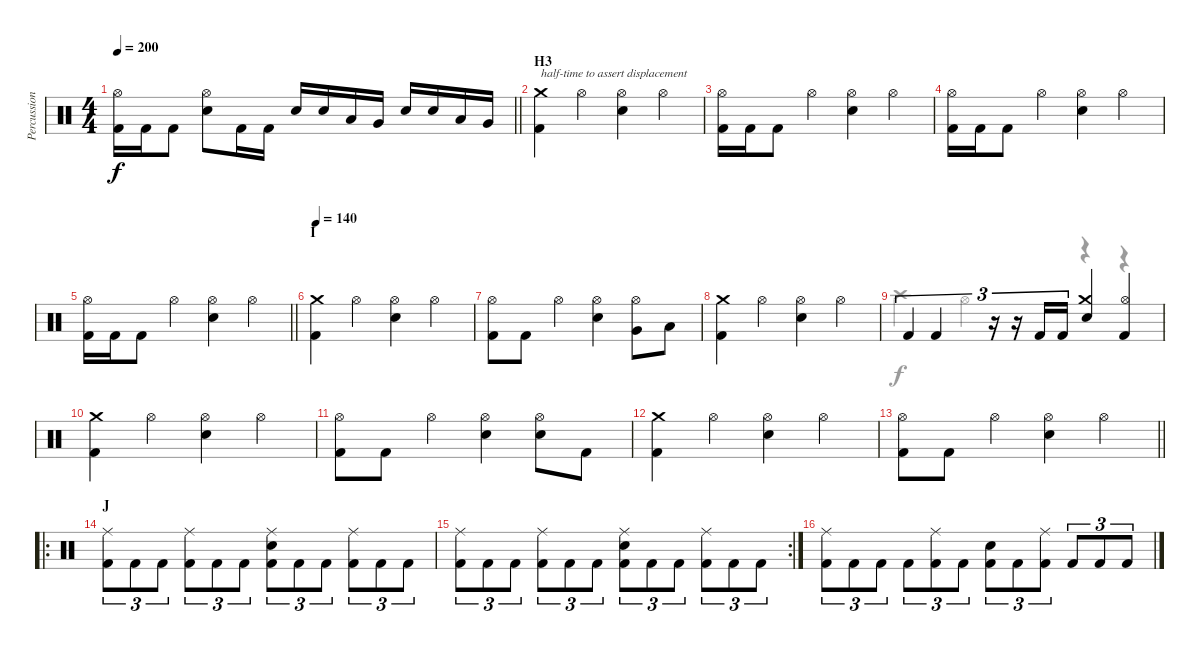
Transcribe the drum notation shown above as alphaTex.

\track ("Percussion" "Percussion") {instrument percussion}
\staff {score}
\articulation defaults
\voice
\ts (4 4)
\tempo 200
\clef neutral
\barLineRight lightlight
\ks c
("Hi-Hat (open)" "Kick (hit) 2").16{dy f} "Kick (hit) 2".16 "Kick (hit) 2".8 ("Hi-Hat (open)" "Electric Snare (hit)").8 "Kick (hit) 2".16 "Kick (hit) 2".16 "Electric Snare (hit)".16 "Electric Snare (hit)".16 "Low Tom (hit)".16 "Very Low Tom (hit)".16 "Electric Snare (hit)".16 "Electric Snare (hit)".16 "Low Tom (hit)".16 "Very Low Tom (hit)".16 |
\section ("" "H3")
("Crash medium (hit)" "Kick (hit) 2").4{txt "half-time to assert displacement"} "Hi-Hat (open)".4 ("Hi-Hat (open)" "Electric Snare (hit)").4 "Hi-Hat (open)".4 |
("Hi-Hat (open)" "Kick (hit) 2").16 "Kick (hit) 2".16 "Kick (hit) 2".8 "Hi-Hat (open)".4 ("Hi-Hat (open)" "Electric Snare (hit)").4 "Hi-Hat (open)".4 |
("Hi-Hat (open)" "Kick (hit) 2").16 "Kick (hit) 2".16 "Kick (hit) 2".8 "Hi-Hat (open)".4 ("Hi-Hat (open)" "Electric Snare (hit)").4 "Hi-Hat (open)".4 |
\barLineRight lightlight
("Hi-Hat (open)" "Kick (hit) 2").16 "Kick (hit) 2".16 "Kick (hit) 2".8 "Hi-Hat (open)".4 ("Hi-Hat (open)" "Electric Snare (hit)").4 "Hi-Hat (open)".4 |
\section ("" "I")
\tempo 140
("Crash medium (hit)" "Kick (hit) 2").4 "Hi-Hat (open)".4 ("Hi-Hat (open)" "Electric Snare (hit)").4 "Hi-Hat (open)".4 |
("Hi-Hat (open)" "Kick (hit) 2").8 "Kick (hit) 2".8 "Hi-Hat (open)".4 ("Hi-Hat (open)" "Electric Snare (hit)").4 ("Hi-Hat (open)" "Very Low Tom (hit)").8 "Low Floor Tom (hit)".8 |
("Crash medium (hit)" "Kick (hit) 2").4 "Hi-Hat (open)".4 ("Hi-Hat (open)" "Electric Snare (hit)").4 "Hi-Hat (open)".4 |
"Kick (hit) 2".4{tu (3 2)} "Kick (hit) 2".4{tu (3 2)} r.16{tu (3 2)} r.16{tu (3 2)} "Kick (hit) 2".16{tu (3 2)} "Kick (hit) 2".16{tu (3 2)} ("Crash medium (hit)" "Electric Snare (hit)").4 ("Hi-Hat (open)" "Kick (hit) 2").4 |
("Crash medium (hit)" "Kick (hit) 2").4 "Hi-Hat (open)".4 ("Hi-Hat (open)" "Electric Snare (hit)").4 "Hi-Hat (open)".4 |
("Hi-Hat (open)" "Kick (hit) 2").8 "Kick (hit) 2".8 "Hi-Hat (open)".4 ("Hi-Hat (open)" "Electric Snare (hit)").4 ("Hi-Hat (open)" "Electric Snare (hit)").8 "Kick (hit) 2".8 |
("Crash medium (hit)" "Kick (hit) 2").4 "Hi-Hat (open)".4 ("Hi-Hat (open)" "Electric Snare (hit)").4 "Hi-Hat (open)".4 |
\barLineRight lightlight
("Hi-Hat (open)" "Kick (hit) 2").8 "Kick (hit) 2".8 "Hi-Hat (open)".4 ("Hi-Hat (open)" "Electric Snare (hit)").4 "Hi-Hat (open)".4 |
\ro
\section ("" "J")
("Ride (middle)" "Kick (hit) 2").8{tu (3 2)} "Kick (hit) 2".8{tu (3 2)} "Kick (hit) 2".8{tu (3 2)} ("Ride (middle)" "Kick (hit) 2").8{tu (3 2)} "Kick (hit) 2".8{tu (3 2)} "Kick (hit) 2".8{tu (3 2)} ("Ride (middle)" "Electric Snare (hit)" "Kick (hit) 2").8{tu (3 2)} "Kick (hit) 2".8{tu (3 2)} "Kick (hit) 2".8{tu (3 2)} ("Ride (middle)" "Kick (hit) 2").8{tu (3 2)} "Kick (hit) 2".8{tu (3 2)} "Kick (hit) 2".8{tu (3 2)} |
\rc 2
("Ride (middle)" "Kick (hit) 2").8{tu (3 2)} "Kick (hit) 2".8{tu (3 2)} "Kick (hit) 2".8{tu (3 2)} ("Ride (middle)" "Kick (hit) 2").8{tu (3 2)} "Kick (hit) 2".8{tu (3 2)} "Kick (hit) 2".8{tu (3 2)} ("Ride (middle)" "Electric Snare (hit)" "Kick (hit) 2").8{tu (3 2)} "Kick (hit) 2".8{tu (3 2)} "Kick (hit) 2".8{tu (3 2)} ("Ride (middle)" "Kick (hit) 2").8{tu (3 2)} "Kick (hit) 2".8{tu (3 2)} "Kick (hit) 2".8{tu (3 2)} |
("Ride (middle)" "Kick (hit) 2").8{tu (3 2)} "Kick (hit) 2".8{tu (3 2)} "Kick (hit) 2".8{tu (3 2)} "Kick (hit) 2".8{tu (3 2)} ("Ride (middle)" "Kick (hit) 2").8{tu (3 2)} "Kick (hit) 2".8{tu (3 2)} ("Electric Snare (hit)" "Kick (hit) 2").8{tu (3 2)} "Kick (hit) 2".8{tu (3 2)} ("Ride (middle)" "Kick (hit) 2").8{tu (3 2)} "Kick (hit) 2".8{tu (3 2)} "Kick (hit) 2".8{tu (3 2)} "Kick (hit) 2".8{tu (3 2)}
\voice
\clef neutral
\ottava regular
\simile none
\barLineRight lightlight
\ks c
|
|
|
|
\barLineRight lightlight
|
|
|
|
"Crash high (hit)".4 "Hi-Hat (open)".4 r.4 r.4 |
|
|
|
\barLineRight lightlight
|
|
|
